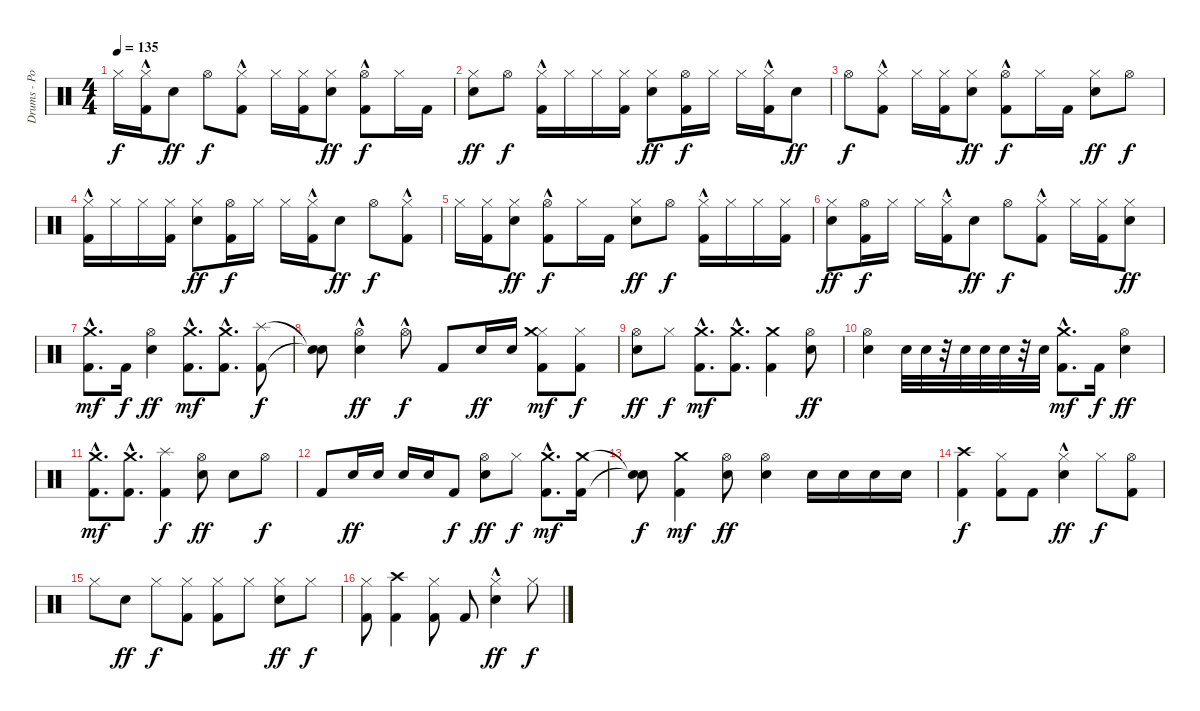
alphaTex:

\track ("Drums - Portnoy" "Drums - Po") {instrument percussion}
\staff {score}
\articulation defaults
\ts (4 4)
\tempo 135
\clef neutral
\ks c "Hi-Hat (closed)".16{dy f}
("Hi-Hat (closed)"{hac} "Kick (hit) 2").16 "Electric Snare (hit)".8{dy ff} "Hi-Hat (open)".8{dy f} ("Kick (hit) 2"{hac} "Hi-Hat (closed)").8 "Hi-Hat (closed)".16 ("Kick (hit) 2" "Hi-Hat (closed)").16 ("Electric Snare (hit)" "Hi-Hat (closed)").8{dy ff} ("Kick (hit) 2"{hac} "Hi-Hat (open)").8{dy f} "Hi-Hat (closed)".16 "Kick (hit) 2".16 |
("Hi-Hat (closed)" "Electric Snare (hit)").8{dy ff} "Hi-Hat (open)".8{dy f} ("Kick (hit) 2"{hac} "Hi-Hat (closed)").16 "Hi-Hat (closed)".16 "Hi-Hat (closed)".16 ("Kick (hit) 2" "Hi-Hat (closed)").16 ("Hi-Hat (closed)" "Electric Snare (hit)").8{dy ff} ("Hi-Hat (open)" "Kick (hit) 2").16{dy f} "Hi-Hat (closed)".16 "Hi-Hat (closed)".16 ("Hi-Hat (closed)"{hac} "Kick (hit) 2").16 "Electric Snare (hit)".8{dy ff} |
"Hi-Hat (open)".8{dy f} ("Kick (hit) 2"{hac} "Hi-Hat (closed)").8 "Hi-Hat (closed)".16 ("Kick (hit) 2" "Hi-Hat (closed)").16 ("Electric Snare (hit)" "Hi-Hat (closed)").8{dy ff} ("Kick (hit) 2"{hac} "Hi-Hat (open)").8{dy f} "Hi-Hat (closed)".16 "Kick (hit) 2".16 ("Hi-Hat (closed)" "Electric Snare (hit)").8{dy ff} "Hi-Hat (open)".8{dy f} |
("Kick (hit) 2"{hac} "Hi-Hat (closed)").16 "Hi-Hat (closed)".16 "Hi-Hat (closed)".16 ("Kick (hit) 2" "Hi-Hat (closed)").16 ("Hi-Hat (closed)" "Electric Snare (hit)").8{dy ff} ("Hi-Hat (open)" "Kick (hit) 2").16{dy f} "Hi-Hat (closed)".16 "Hi-Hat (closed)".16 ("Hi-Hat (closed)"{hac} "Kick (hit) 2").16 "Electric Snare (hit)".8{dy ff} "Hi-Hat (open)".8{dy f} ("Kick (hit) 2"{hac} "Hi-Hat (closed)").8 |
"Hi-Hat (closed)".16 ("Kick (hit) 2" "Hi-Hat (closed)").16 ("Electric Snare (hit)" "Hi-Hat (closed)").8{dy ff} ("Kick (hit) 2"{hac} "Hi-Hat (open)").8{dy f} "Hi-Hat (closed)".16 "Kick (hit) 2".16 ("Hi-Hat (closed)" "Electric Snare (hit)").8{dy ff} "Hi-Hat (open)".8{dy f} ("Kick (hit) 2"{hac} "Hi-Hat (closed)").16 "Hi-Hat (closed)".16 "Hi-Hat (closed)".16 ("Kick (hit) 2" "Hi-Hat (closed)").16 |
("Hi-Hat (closed)" "Electric Snare (hit)").8{dy ff} ("Hi-Hat (open)" "Kick (hit) 2").16{dy f} "Hi-Hat (closed)".16 "Hi-Hat (closed)".16 ("Hi-Hat (closed)"{hac} "Kick (hit) 2").16 "Electric Snare (hit)".8{dy ff} "Hi-Hat (open)".8{dy f} ("Kick (hit) 2"{hac} "Hi-Hat (closed)").8 "Hi-Hat (closed)".16 ("Kick (hit) 2" "Hi-Hat (closed)").16 ("Electric Snare (hit)" "Hi-Hat (closed)").8{dy ff} |
("Kick (hit) 2"{hac} "Crash medium (hit)").8{d dy mf} "Kick (hit) 2".16{dy f} ("Hi-Hat (open)" "Electric Snare (hit)").4{dy ff} ("Kick (hit) 2"{hac} "Crash medium (hit)"{hac}).8{d dy mf} ("Kick (hit) 2"{hac} "Crash medium (hit)"{hac}).8{d} ("Kick (hit) 2" "Splash (hit)").8{dy f} |
("Snare (hit)"{t} "Snare (hit)"{t}).8 ("Hi-Hat (open)" "Electric Snare (hit)"{hac}).4{dy ff} "Hi-Hat (open)"{hac}.8{dy f} "Kick (hit) 2".8 "Electric Snare (hit)".16{dy ff} "Electric Snare (hit)".16 ("Kick (hit) 2" "Hi-Hat (closed)" "Crash medium (hit)").8{dy mf} ("Kick (hit) 2" "Hi-Hat (closed)").8{dy f} |
("Hi-Hat (open)" "Electric Snare (hit)").8{dy ff} "Hi-Hat (closed)".8{dy f} ("Kick (hit) 2"{hac} "Crash medium (hit)"{hac}).8{d dy mf} ("Kick (hit) 2"{hac} "Crash medium (hit)"{hac}).8{d} ("Kick (hit) 2" "Crash medium (hit)").4 ("Hi-Hat (open)" "Electric Snare (hit)").8{dy ff} |
("Hi-Hat (open)" "Electric Snare (hit)").4 "Electric Snare (hit)".32 "Electric Snare (hit)".32 r.32 "Electric Snare (hit)".32 "Electric Snare (hit)".32 "Electric Snare (hit)".32 r.32 "Electric Snare (hit)".32 ("Kick (hit) 2"{hac} "Crash medium (hit)").8{d dy mf} "Kick (hit) 2".16{dy f} ("Hi-Hat (open)" "Electric Snare (hit)").4{dy ff} |
("Kick (hit) 2"{hac} "Crash medium (hit)"{hac}).8{d dy mf} ("Kick (hit) 2"{hac} "Crash medium (hit)"{hac}).8{d} ("Kick (hit) 2" "Splash (hit)").4{dy f} ("Hi-Hat (open)" "Electric Snare (hit)").8{dy ff} "Electric Snare (hit)".8 "Hi-Hat (open)".8{dy f} |
"Kick (hit) 2".8 "Electric Snare (hit)".16{dy ff} "Electric Snare (hit)".16 "Electric Snare (hit)".16 "Electric Snare (hit)".16 "Kick (hit) 2".8{dy f} ("Hi-Hat (open)" "Electric Snare (hit)").8{dy ff} "Hi-Hat (closed)".8{dy f} ("Kick (hit) 2"{hac} "Crash medium (hit)"{hac}).8{d dy mf} ("Kick (hit) 2" "Crash medium (hit)").16 |
("Snare (hit)"{t} "Snare (hit)"{t}).8{dy f} ("Kick (hit) 2" "Crash medium (hit)").4{dy mf} ("Hi-Hat (open)" "Electric Snare (hit)").8{dy ff} ("Hi-Hat (open)" "Electric Snare (hit)").4 "Electric Snare (hit)".16 "Electric Snare (hit)".16 "Electric Snare (hit)".16 "Electric Snare (hit)".16 |
("Crash high (hit)" "Kick (hit) 2").4{dy f} ("Hi-Hat (closed)" "Kick (hit) 2").8 "Kick (hit) 2".8 ("Hi-Hat (closed)" "Electric Snare (hit)"{hac}).4{dy ff} "Hi-Hat (closed)".8{dy f} ("Kick (hit) 2" "Hi-Hat (open)").8 |
"Hi-Hat (closed)".8 "Electric Snare (hit)".8{dy ff} "Hi-Hat (closed)".8{dy f} ("Kick (hit) 2" "Hi-Hat (closed)").8 ("Kick (hit) 2" "Hi-Hat (closed)").8 "Hi-Hat (closed)".8 ("Hi-Hat (closed)" "Electric Snare (hit)").8{dy ff} "Hi-Hat (closed)".8{dy f} |
("Kick (hit) 2" "Hi-Hat (closed)").8 ("Kick (hit) 2" "Crash high (hit)").4 ("Hi-Hat (closed)" "Kick (hit) 2").8 "Kick (hit) 2".8 ("Hi-Hat (closed)" "Electric Snare (hit)"{hac}).4{dy ff} "Hi-Hat (closed)".8{dy f}
